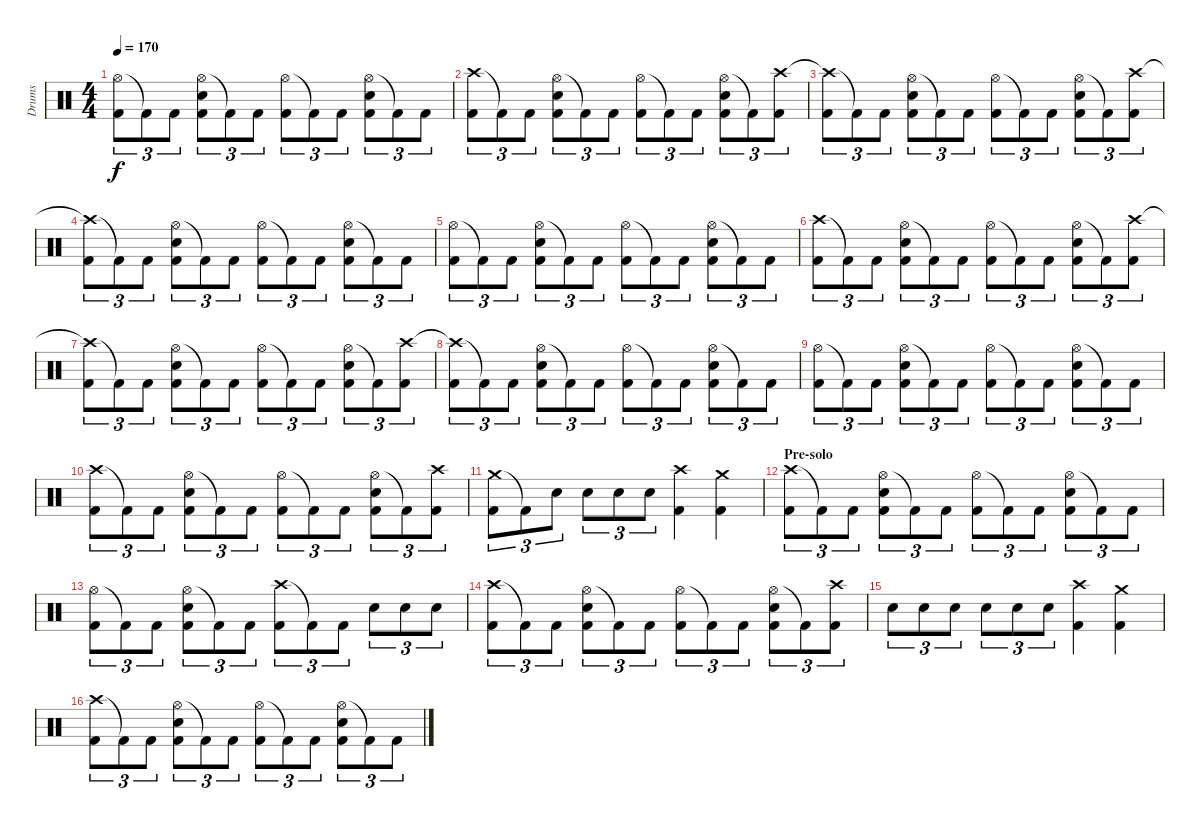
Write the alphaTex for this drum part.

\track ("Drums" "Drums") {instrument percussion}
\staff {score}
\articulation defaults
\ts (4 4)
\tempo 170
\clef neutral
\ks c
("Hi-Hat (open)" "Kick (hit) 2").8{tu (3 2) dy f} "Kick (hit) 2"{t}.8{tu (3 2)} "Kick (hit) 2".8{tu (3 2)} ("Hi-Hat (open)" "Snare (hit) 2" "Kick (hit) 2").8{tu (3 2)} "Kick (hit) 2"{t}.8{tu (3 2)} "Kick (hit) 2".8{tu (3 2)} ("Hi-Hat (open)" "Kick (hit) 2").8{tu (3 2)} "Kick (hit) 2"{t}.8{tu (3 2)} "Kick (hit) 2".8{tu (3 2)} ("Hi-Hat (open)" "Snare (hit) 2" "Kick (hit) 2").8{tu (3 2)} "Kick (hit) 2"{t}.8{tu (3 2)} "Kick (hit) 2".8{tu (3 2)} |
("Crash high (hit)" "Kick (hit) 2").8{tu (3 2)} "Kick (hit) 2"{t}.8{tu (3 2)} "Kick (hit) 2".8{tu (3 2)} ("Hi-Hat (open)" "Snare (hit) 2" "Kick (hit) 2").8{tu (3 2)} "Kick (hit) 2"{t}.8{tu (3 2)} "Kick (hit) 2".8{tu (3 2)} ("Hi-Hat (open)" "Kick (hit) 2").8{tu (3 2)} "Kick (hit) 2"{t}.8{tu (3 2)} "Kick (hit) 2".8{tu (3 2)} ("Hi-Hat (open)" "Snare (hit) 2" "Kick (hit) 2").8{tu (3 2)} "Kick (hit) 2"{t}.8{tu (3 2)} ("Crash high (hit)" "Kick (hit) 2").8{tu (3 2)} |
("Crash high (hit)"{t} "Kick (hit) 2").8{tu (3 2)} "Kick (hit) 2"{t}.8{tu (3 2)} "Kick (hit) 2".8{tu (3 2)} ("Hi-Hat (open)" "Snare (hit) 2" "Kick (hit) 2").8{tu (3 2)} "Kick (hit) 2"{t}.8{tu (3 2)} "Kick (hit) 2".8{tu (3 2)} ("Hi-Hat (open)" "Kick (hit) 2").8{tu (3 2)} "Kick (hit) 2"{t}.8{tu (3 2)} "Kick (hit) 2".8{tu (3 2)} ("Hi-Hat (open)" "Snare (hit) 2" "Kick (hit) 2").8{tu (3 2)} "Kick (hit) 2"{t}.8{tu (3 2)} ("Crash high (hit)" "Kick (hit) 2").8{tu (3 2)} |
("Crash high (hit)"{t} "Kick (hit) 2").8{tu (3 2)} "Kick (hit) 2"{t}.8{tu (3 2)} "Kick (hit) 2".8{tu (3 2)} ("Hi-Hat (open)" "Snare (hit) 2" "Kick (hit) 2").8{tu (3 2)} "Kick (hit) 2"{t}.8{tu (3 2)} "Kick (hit) 2".8{tu (3 2)} ("Hi-Hat (open)" "Kick (hit) 2").8{tu (3 2)} "Kick (hit) 2"{t}.8{tu (3 2)} "Kick (hit) 2".8{tu (3 2)} ("Hi-Hat (open)" "Snare (hit) 2" "Kick (hit) 2").8{tu (3 2)} "Kick (hit) 2"{t}.8{tu (3 2)} "Kick (hit) 2".8{tu (3 2)} |
("Hi-Hat (open)" "Kick (hit) 2").8{tu (3 2)} "Kick (hit) 2"{t}.8{tu (3 2)} "Kick (hit) 2".8{tu (3 2)} ("Hi-Hat (open)" "Snare (hit) 2" "Kick (hit) 2").8{tu (3 2)} "Kick (hit) 2"{t}.8{tu (3 2)} "Kick (hit) 2".8{tu (3 2)} ("Hi-Hat (open)" "Kick (hit) 2").8{tu (3 2)} "Kick (hit) 2"{t}.8{tu (3 2)} "Kick (hit) 2".8{tu (3 2)} ("Hi-Hat (open)" "Snare (hit) 2" "Kick (hit) 2").8{tu (3 2)} "Kick (hit) 2"{t}.8{tu (3 2)} "Kick (hit) 2".8{tu (3 2)} |
("Crash high (hit)" "Kick (hit) 2").8{tu (3 2)} "Kick (hit) 2"{t}.8{tu (3 2)} "Kick (hit) 2".8{tu (3 2)} ("Hi-Hat (open)" "Snare (hit) 2" "Kick (hit) 2").8{tu (3 2)} "Kick (hit) 2"{t}.8{tu (3 2)} "Kick (hit) 2".8{tu (3 2)} ("Hi-Hat (open)" "Kick (hit) 2").8{tu (3 2)} "Kick (hit) 2"{t}.8{tu (3 2)} "Kick (hit) 2".8{tu (3 2)} ("Hi-Hat (open)" "Snare (hit) 2" "Kick (hit) 2").8{tu (3 2)} "Kick (hit) 2"{t}.8{tu (3 2)} ("Crash high (hit)" "Kick (hit) 2").8{tu (3 2)} |
("Crash high (hit)"{t} "Kick (hit) 2").8{tu (3 2)} "Kick (hit) 2"{t}.8{tu (3 2)} "Kick (hit) 2".8{tu (3 2)} ("Hi-Hat (open)" "Snare (hit) 2" "Kick (hit) 2").8{tu (3 2)} "Kick (hit) 2"{t}.8{tu (3 2)} "Kick (hit) 2".8{tu (3 2)} ("Hi-Hat (open)" "Kick (hit) 2").8{tu (3 2)} "Kick (hit) 2"{t}.8{tu (3 2)} "Kick (hit) 2".8{tu (3 2)} ("Hi-Hat (open)" "Snare (hit) 2" "Kick (hit) 2").8{tu (3 2)} "Kick (hit) 2"{t}.8{tu (3 2)} ("Crash high (hit)" "Kick (hit) 2").8{tu (3 2)} |
("Crash high (hit)"{t} "Kick (hit) 2").8{tu (3 2)} "Kick (hit) 2"{t}.8{tu (3 2)} "Kick (hit) 2".8{tu (3 2)} ("Hi-Hat (open)" "Snare (hit) 2" "Kick (hit) 2").8{tu (3 2)} "Kick (hit) 2"{t}.8{tu (3 2)} "Kick (hit) 2".8{tu (3 2)} ("Hi-Hat (open)" "Kick (hit) 2").8{tu (3 2)} "Kick (hit) 2"{t}.8{tu (3 2)} "Kick (hit) 2".8{tu (3 2)} ("Hi-Hat (open)" "Snare (hit) 2" "Kick (hit) 2").8{tu (3 2)} "Kick (hit) 2"{t}.8{tu (3 2)} "Kick (hit) 2".8{tu (3 2)} |
("Hi-Hat (open)" "Kick (hit) 2").8{tu (3 2)} "Kick (hit) 2"{t}.8{tu (3 2)} "Kick (hit) 2".8{tu (3 2)} ("Hi-Hat (open)" "Snare (hit) 2" "Kick (hit) 2").8{tu (3 2)} "Kick (hit) 2"{t}.8{tu (3 2)} "Kick (hit) 2".8{tu (3 2)} ("Hi-Hat (open)" "Kick (hit) 2").8{tu (3 2)} "Kick (hit) 2"{t}.8{tu (3 2)} "Kick (hit) 2".8{tu (3 2)} ("Hi-Hat (open)" "Snare (hit) 2" "Kick (hit) 2").8{tu (3 2)} "Kick (hit) 2"{t}.8{tu (3 2)} "Kick (hit) 2".8{tu (3 2)} |
("Crash high (hit)" "Kick (hit) 2").8{tu (3 2)} "Kick (hit) 2"{t}.8{tu (3 2)} "Kick (hit) 2".8{tu (3 2)} ("Hi-Hat (open)" "Snare (hit) 2" "Kick (hit) 2").8{tu (3 2)} "Kick (hit) 2"{t}.8{tu (3 2)} "Kick (hit) 2".8{tu (3 2)} ("Hi-Hat (open)" "Kick (hit) 2").8{tu (3 2)} "Kick (hit) 2"{t}.8{tu (3 2)} "Kick (hit) 2".8{tu (3 2)} ("Hi-Hat (open)" "Snare (hit) 2" "Kick (hit) 2").8{tu (3 2)} "Kick (hit) 2"{t}.8{tu (3 2)} ("Crash high (hit)" "Kick (hit) 2").8{tu (3 2)} |
("Crash medium (hit)" "Kick (hit) 2").8{tu (3 2)} "Kick (hit) 2"{t}.8{tu (3 2)} "Snare (hit) 2".8{tu (3 2)} "Snare (hit) 2".8{tu (3 2)} "Snare (hit) 2".8{tu (3 2)} "Snare (hit) 2".8{tu (3 2)} ("Crash high (hit)" "Kick (hit) 2").4 ("Crash medium (hit)" "Kick (hit) 2").4 |
\section ("" "Pre-solo")
("Crash high (hit)" "Kick (hit) 2").8{tu (3 2)} "Kick (hit) 2"{t}.8{tu (3 2)} "Kick (hit) 2".8{tu (3 2)} ("Hi-Hat (open)" "Snare (hit) 2" "Kick (hit) 2").8{tu (3 2)} "Kick (hit) 2"{t}.8{tu (3 2)} "Kick (hit) 2".8{tu (3 2)} ("Hi-Hat (open)" "Kick (hit) 2").8{tu (3 2)} "Kick (hit) 2"{t}.8{tu (3 2)} "Kick (hit) 2".8{tu (3 2)} ("Hi-Hat (open)" "Snare (hit) 2" "Kick (hit) 2").8{tu (3 2)} "Kick (hit) 2"{t}.8{tu (3 2)} "Kick (hit) 2".8{tu (3 2)} |
("Hi-Hat (open)" "Kick (hit) 2").8{tu (3 2)} "Kick (hit) 2"{t}.8{tu (3 2)} "Kick (hit) 2".8{tu (3 2)} ("Hi-Hat (open)" "Snare (hit) 2" "Kick (hit) 2").8{tu (3 2)} "Kick (hit) 2"{t}.8{tu (3 2)} "Kick (hit) 2".8{tu (3 2)} ("Crash high (hit)" "Kick (hit) 2").8{tu (3 2)} "Kick (hit) 2"{t}.8{tu (3 2)} "Kick (hit) 2".8{tu (3 2)} "Snare (hit) 2".8{tu (3 2)} "Snare (hit) 2".8{tu (3 2)} "Snare (hit) 2".8{tu (3 2)} |
("Crash high (hit)" "Kick (hit) 2").8{tu (3 2)} "Kick (hit) 2"{t}.8{tu (3 2)} "Kick (hit) 2".8{tu (3 2)} ("Hi-Hat (open)" "Snare (hit) 2" "Kick (hit) 2").8{tu (3 2)} "Kick (hit) 2"{t}.8{tu (3 2)} "Kick (hit) 2".8{tu (3 2)} ("Hi-Hat (open)" "Kick (hit) 2").8{tu (3 2)} "Kick (hit) 2"{t}.8{tu (3 2)} "Kick (hit) 2".8{tu (3 2)} ("Hi-Hat (open)" "Snare (hit) 2" "Kick (hit) 2").8{tu (3 2)} "Kick (hit) 2"{t}.8{tu (3 2)} ("Crash high (hit)" "Kick (hit) 2").8{tu (3 2)} |
"Snare (hit) 2".8{tu (3 2)} "Snare (hit) 2".8{tu (3 2)} "Snare (hit) 2".8{tu (3 2)} "Snare (hit) 2".8{tu (3 2)} "Snare (hit) 2".8{tu (3 2)} "Snare (hit) 2".8{tu (3 2)} ("Crash high (hit)" "Kick (hit) 2").4 ("Crash medium (hit)" "Kick (hit) 2").4 |
("Crash high (hit)" "Kick (hit) 2").8{tu (3 2)} "Kick (hit) 2"{t}.8{tu (3 2)} "Kick (hit) 2".8{tu (3 2)} ("Hi-Hat (open)" "Snare (hit) 2" "Kick (hit) 2").8{tu (3 2)} "Kick (hit) 2"{t}.8{tu (3 2)} "Kick (hit) 2".8{tu (3 2)} ("Hi-Hat (open)" "Kick (hit) 2").8{tu (3 2)} "Kick (hit) 2"{t}.8{tu (3 2)} "Kick (hit) 2".8{tu (3 2)} ("Hi-Hat (open)" "Snare (hit) 2" "Kick (hit) 2").8{tu (3 2)} "Kick (hit) 2"{t}.8{tu (3 2)} "Kick (hit) 2".8{tu (3 2)}
